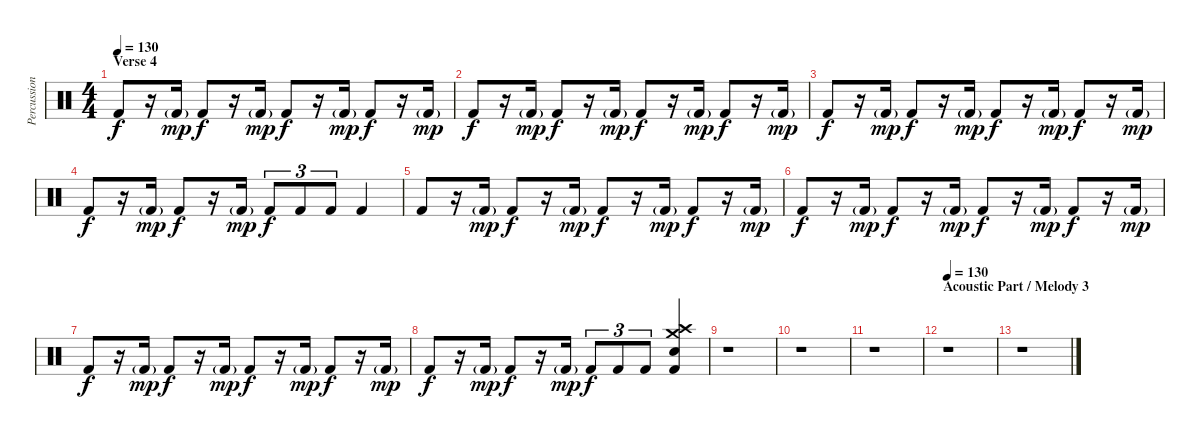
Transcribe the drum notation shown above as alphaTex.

\track ("Percussion - Rhythm" "Percussion") {instrument percussion}
\staff {score}
\articulation defaults
\ts (4 4)
\section ("" "Verse 4")
\tempo 130
\clef neutral
\ks c "Kick (hit) 2".8{dy f}
r.16 "Kick (hit) 2"{g}.16{dy mp} "Kick (hit) 2".8{dy f} r.16 "Kick (hit) 2"{g}.16{dy mp} "Kick (hit) 2".8{dy f} r.16 "Kick (hit) 2"{g}.16{dy mp} "Kick (hit) 2".8{dy f} r.16 "Kick (hit) 2"{g}.16{dy mp} |
"Kick (hit) 2".8{dy f} r.16 "Kick (hit) 2"{g}.16{dy mp} "Kick (hit) 2".8{dy f} r.16 "Kick (hit) 2"{g}.16{dy mp} "Kick (hit) 2".8{dy f} r.16 "Kick (hit) 2"{g}.16{dy mp} "Kick (hit) 2".8{dy f} r.16 "Kick (hit) 2"{g}.16{dy mp} |
"Kick (hit) 2".8{dy f} r.16 "Kick (hit) 2"{g}.16{dy mp} "Kick (hit) 2".8{dy f} r.16 "Kick (hit) 2"{g}.16{dy mp} "Kick (hit) 2".8{dy f} r.16 "Kick (hit) 2"{g}.16{dy mp} "Kick (hit) 2".8{dy f} r.16 "Kick (hit) 2"{g}.16{dy mp} |
"Kick (hit) 2".8{dy f} r.16 "Kick (hit) 2"{g}.16{dy mp} "Kick (hit) 2".8{dy f} r.16 "Kick (hit) 2"{g}.16{dy mp} "Kick (hit) 2".8{tu (3 2) dy f} "Kick (hit) 2".8{tu (3 2)} "Kick (hit) 2".8{tu (3 2)} "Kick (hit) 2".4 |
"Kick (hit) 2".8 r.16 "Kick (hit) 2"{g}.16{dy mp} "Kick (hit) 2".8{dy f} r.16 "Kick (hit) 2"{g}.16{dy mp} "Kick (hit) 2".8{dy f} r.16 "Kick (hit) 2"{g}.16{dy mp} "Kick (hit) 2".8{dy f} r.16 "Kick (hit) 2"{g}.16{dy mp} |
"Kick (hit) 2".8{dy f} r.16 "Kick (hit) 2"{g}.16{dy mp} "Kick (hit) 2".8{dy f} r.16 "Kick (hit) 2"{g}.16{dy mp} "Kick (hit) 2".8{dy f} r.16 "Kick (hit) 2"{g}.16{dy mp} "Kick (hit) 2".8{dy f} r.16 "Kick (hit) 2"{g}.16{dy mp} |
"Kick (hit) 2".8{dy f} r.16 "Kick (hit) 2"{g}.16{dy mp} "Kick (hit) 2".8{dy f} r.16 "Kick (hit) 2"{g}.16{dy mp} "Kick (hit) 2".8{dy f} r.16 "Kick (hit) 2"{g}.16{dy mp} "Kick (hit) 2".8{dy f} r.16 "Kick (hit) 2"{g}.16{dy mp} |
"Kick (hit) 2".8{dy f} r.16 "Kick (hit) 2"{g}.16{dy mp} "Kick (hit) 2".8{dy f} r.16 "Kick (hit) 2"{g}.16{dy mp} "Kick (hit) 2".8{tu (3 2) dy f} "Kick (hit) 2".8{tu (3 2)} "Kick (hit) 2".8{tu (3 2)} ("Crash high (hit)" "Crash medium (hit)" "Snare (hit) 2" "Kick (hit) 2").4 |
r.1 |
r.1 |
r.1 |
\section ("" "Acoustic Part / Melody 3")
\tempo 130
r.1{volume 13} |
r.1
